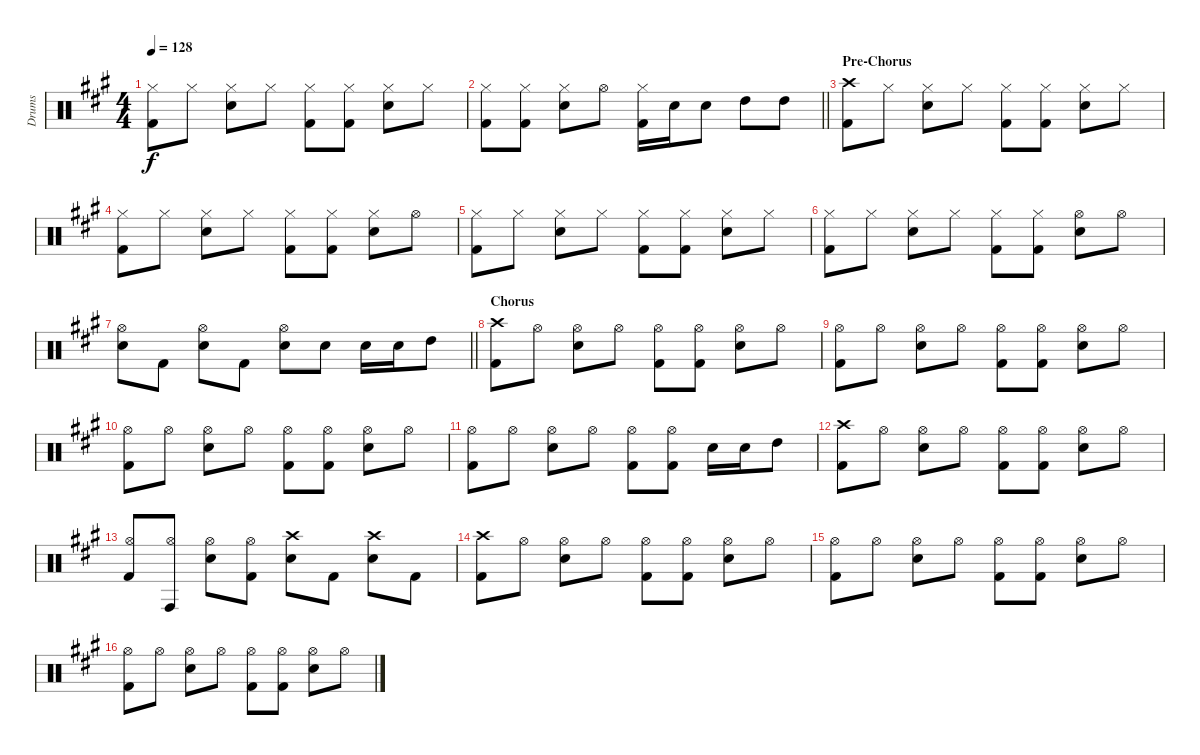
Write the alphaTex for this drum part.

\track ("Drums" "Drums") {instrument percussion}
\staff {score}
\articulation defaults
\ts (4 4)
\tempo 128
\clef neutral
\ks a
("Hi-Hat (closed)" "Kick (hit) 2").8{dy f} "Hi-Hat (closed)".8 ("Hi-Hat (closed)" "Snare (hit) 2").8 "Hi-Hat (closed)".8 ("Hi-Hat (closed)" "Kick (hit) 2").8 ("Hi-Hat (closed)" "Kick (hit) 2").8 ("Hi-Hat (closed)" "Snare (hit) 2").8 "Hi-Hat (closed)".8 |
\barLineRight lightlight
("Hi-Hat (closed)" "Kick (hit) 2").8 ("Hi-Hat (closed)" "Kick (hit) 2").8 ("Hi-Hat (closed)" "Snare (hit) 2").8 "Hi-Hat (open)".8 ("Hi-Hat (closed)" "Kick (hit) 2").16 "Snare (hit) 2".16 "Snare (hit) 2".8 "High Tom (hit)".8 "High Tom (hit)".8 |
\section ("" "Pre-Chorus")
("Crash high (hit)" "Kick (hit) 2").8 "Hi-Hat (closed)".8 ("Hi-Hat (closed)" "Snare (hit) 2").8 "Hi-Hat (closed)".8 ("Hi-Hat (closed)" "Kick (hit) 2").8 ("Hi-Hat (closed)" "Kick (hit) 2").8 ("Hi-Hat (closed)" "Snare (hit) 2").8 "Hi-Hat (closed)".8 |
("Hi-Hat (closed)" "Kick (hit) 2").8 "Hi-Hat (closed)".8 ("Hi-Hat (closed)" "Snare (hit) 2").8 "Hi-Hat (closed)".8 ("Hi-Hat (closed)" "Kick (hit) 2").8 ("Hi-Hat (closed)" "Kick (hit) 2").8 ("Hi-Hat (closed)" "Snare (hit) 2").8 "Hi-Hat (open)".8 |
("Hi-Hat (closed)" "Kick (hit) 2").8 "Hi-Hat (closed)".8 ("Hi-Hat (closed)" "Snare (hit) 2").8 "Hi-Hat (closed)".8 ("Hi-Hat (closed)" "Kick (hit) 2").8 ("Hi-Hat (closed)" "Kick (hit) 2").8 ("Hi-Hat (closed)" "Snare (hit) 2").8 "Hi-Hat (closed)".8 |
("Hi-Hat (closed)" "Kick (hit) 2").8 "Hi-Hat (closed)".8 ("Hi-Hat (closed)" "Snare (hit) 2").8 "Hi-Hat (closed)".8 ("Hi-Hat (closed)" "Kick (hit) 2").8 ("Hi-Hat (closed)" "Kick (hit) 2").8 ("Hi-Hat (open)" "Snare (hit) 2").8 "Hi-Hat (open)".8 |
\barLineRight lightlight
("Hi-Hat (open)" "Snare (hit) 2").8 "Kick (hit) 2".8 ("Hi-Hat (open)" "Snare (hit) 2").8 "Kick (hit) 2".8 ("Hi-Hat (open)" "Snare (hit) 2").8 "Snare (hit) 2".8 "Snare (hit) 2".16 "Snare (hit) 2".16 "High Tom (hit)".8 |
\section ("" "Chorus")
("Crash high (hit)" "Kick (hit) 2").8 "Hi-Hat (open)".8 ("Hi-Hat (open)" "Snare (hit) 2").8 "Hi-Hat (open)".8 ("Hi-Hat (open)" "Kick (hit) 2").8 ("Hi-Hat (open)" "Kick (hit) 2").8 ("Hi-Hat (open)" "Snare (hit) 2").8 "Hi-Hat (open)".8 |
("Hi-Hat (open)" "Kick (hit) 2").8 "Hi-Hat (open)".8 ("Hi-Hat (open)" "Snare (hit) 2").8 "Hi-Hat (open)".8 ("Hi-Hat (open)" "Kick (hit) 2").8 ("Hi-Hat (open)" "Kick (hit) 2").8 ("Hi-Hat (open)" "Snare (hit) 2").8 "Hi-Hat (open)".8 |
("Hi-Hat (open)" "Kick (hit) 2").8 "Hi-Hat (open)".8 ("Hi-Hat (open)" "Snare (hit) 2").8 "Hi-Hat (open)".8 ("Hi-Hat (open)" "Kick (hit) 2").8 ("Hi-Hat (open)" "Kick (hit) 2").8 ("Hi-Hat (open)" "Snare (hit) 2").8 "Hi-Hat (open)".8 |
("Hi-Hat (open)" "Kick (hit) 2").8 "Hi-Hat (open)".8 ("Hi-Hat (open)" "Snare (hit) 2").8 "Hi-Hat (open)".8 ("Hi-Hat (open)" "Kick (hit) 2").8 ("Hi-Hat (open)" "Kick (hit) 2").8 "Snare (hit) 2".16 "Snare (hit) 2".16 "High Tom (hit)".8 |
("Crash high (hit)" "Kick (hit) 2").8 "Hi-Hat (open)".8 ("Hi-Hat (open)" "Snare (hit) 2").8 "Hi-Hat (open)".8 ("Hi-Hat (open)" "Kick (hit) 2").8 ("Hi-Hat (open)" "Kick (hit) 2").8 ("Hi-Hat (open)" "Snare (hit) 2").8 "Hi-Hat (open)".8 |
("Hi-Hat (open)" "Kick (hit) 2").8 ("Hi-Hat (open)" "Conga high (hit)").8 ("Hi-Hat (open)" "Snare (hit) 2").8 ("Hi-Hat (open)" "Kick (hit) 2").8 ("Crash high (hit)" "Snare (hit) 2").8 "Kick (hit) 2".8 ("Crash high (hit)" "Snare (hit) 2").8 "Kick (hit) 2".8 |
("Crash high (hit)" "Kick (hit) 2").8 "Hi-Hat (open)".8 ("Hi-Hat (open)" "Snare (hit) 2").8 "Hi-Hat (open)".8 ("Hi-Hat (open)" "Kick (hit) 2").8 ("Hi-Hat (open)" "Kick (hit) 2").8 ("Hi-Hat (open)" "Snare (hit) 2").8 "Hi-Hat (open)".8 |
("Hi-Hat (open)" "Kick (hit) 2").8 "Hi-Hat (open)".8 ("Hi-Hat (open)" "Snare (hit) 2").8 "Hi-Hat (open)".8 ("Hi-Hat (open)" "Kick (hit) 2").8 ("Hi-Hat (open)" "Kick (hit) 2").8 ("Hi-Hat (open)" "Snare (hit) 2").8 "Hi-Hat (open)".8 |
("Hi-Hat (open)" "Kick (hit) 2").8 "Hi-Hat (open)".8 ("Hi-Hat (open)" "Snare (hit) 2").8 "Hi-Hat (open)".8 ("Hi-Hat (open)" "Kick (hit) 2").8 ("Hi-Hat (open)" "Kick (hit) 2").8 ("Hi-Hat (open)" "Snare (hit) 2").8 "Hi-Hat (open)".8
